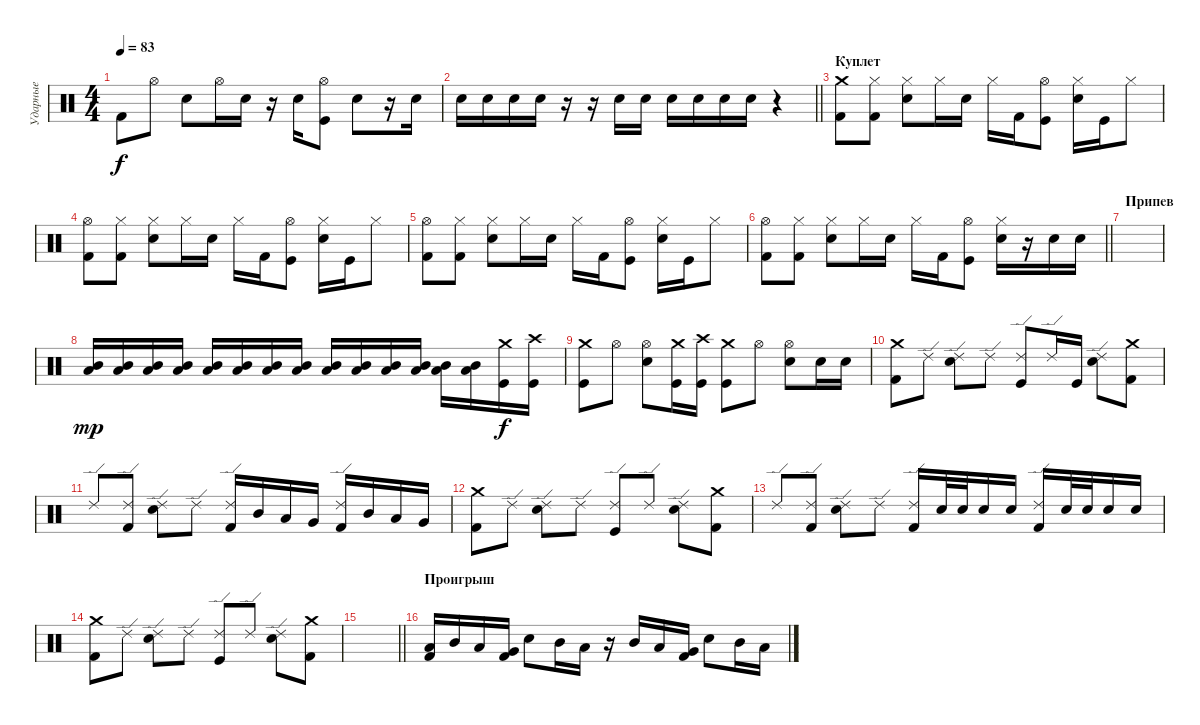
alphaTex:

\track ("Ударные" "Ударные") {instrument percussion}
\staff {score}
\articulation defaults
\ts (4 4)
\tempo 83
\clef neutral
\ks c "Kick (hit) 2".8{dy f} "Hi-Hat (open)".8 "Snare (hit) 2".8 "Hi-Hat (open)".16 "Snare (hit) 2".16
r.16 "Snare (hit) 2".16 ("Hi-Hat (open)" "Kick (hit)").8 "Snare (hit) 2".8 r.16 "Snare (hit) 2".16 |
\barLineRight lightlight "Snare (hit) 2".16 "Snare (hit) 2".16 "Snare (hit) 2".16 "Snare (hit) 2".16
r.16 r.16 "Snare (hit) 2".16 "Snare (hit) 2".16 "Snare (hit) 2".16 "Snare (hit) 2".16 "Snare (hit) 2".16 "Snare (hit) 2".16 r.4 |
\section ("" "Куплет")
("Crash medium (hit)" "Kick (hit) 2").8 ("Hi-Hat (closed)" "Kick (hit) 2").8 ("Hi-Hat (closed)" "Snare (hit) 2").8 "Hi-Hat (closed)".16 "Snare (hit) 2".16 "Hi-Hat (closed)".16 "Kick (hit) 2".16 ("Hi-Hat (open)" "Kick (hit)").8 ("Hi-Hat (closed)" "Snare (hit) 2").16 "Kick (hit)".16 "Hi-Hat (closed)".8 |
("Hi-Hat (open)" "Kick (hit) 2").8 ("Hi-Hat (closed)" "Kick (hit) 2").8 ("Hi-Hat (closed)" "Snare (hit) 2").8 "Hi-Hat (closed)".16 "Snare (hit) 2".16 "Hi-Hat (closed)".16 "Kick (hit) 2".16 ("Hi-Hat (open)" "Kick (hit)").8 ("Hi-Hat (closed)" "Snare (hit) 2").16 "Kick (hit)".16 "Hi-Hat (closed)".8 |
("Hi-Hat (open)" "Kick (hit) 2").8 ("Hi-Hat (closed)" "Kick (hit) 2").8 ("Hi-Hat (closed)" "Snare (hit) 2").8 "Hi-Hat (closed)".16 "Snare (hit) 2".16 "Hi-Hat (closed)".16 "Kick (hit) 2".16 ("Hi-Hat (open)" "Kick (hit)").8 ("Hi-Hat (closed)" "Snare (hit) 2").16 "Kick (hit)".16 "Hi-Hat (closed)".8 |
\barLineRight lightlight
("Hi-Hat (open)" "Kick (hit) 2").8 ("Hi-Hat (closed)" "Kick (hit) 2").8 ("Hi-Hat (closed)" "Snare (hit) 2").8 "Hi-Hat (closed)".16 "Snare (hit) 2".16 "Hi-Hat (closed)".16 "Kick (hit) 2".16 ("Hi-Hat (open)" "Kick (hit)").8 ("Hi-Hat (closed)" "Snare (hit) 2").16 r.16 "Snare (hit) 2".16 "Snare (hit) 2".16 |
\section ("" "Припев")
|
("Low Tom (hit)" "Mid Tom (hit)").16{dy mp} ("Low Tom (hit)" "Mid Tom (hit)").16 ("Low Tom (hit)" "Mid Tom (hit)").16 ("Low Tom (hit)" "Mid Tom (hit)").16 ("Low Tom (hit)" "Mid Tom (hit)").16 ("Low Tom (hit)" "Mid Tom (hit)").16 ("Low Tom (hit)" "Mid Tom (hit)").16 ("Low Tom (hit)" "Mid Tom (hit)").16 ("Low Tom (hit)" "Mid Tom (hit)").16 ("Low Tom (hit)" "Mid Tom (hit)").16 ("Low Tom (hit)" "Mid Tom (hit)").16 ("Low Tom (hit)" "Mid Tom (hit)").16 ("Low Tom (hit)" "Mid Tom (hit)").16 ("Low Tom (hit)" "Mid Tom (hit)").16 ("Crash medium (hit)" "Kick (hit)").16{dy f} ("Crash high (hit)" "Kick (hit)").16 |
("Crash medium (hit)" "Kick (hit)").8 "Hi-Hat (open)".8 ("Hi-Hat (open)" "Snare (hit) 2").8 ("Crash medium (hit)" "Kick (hit)").16 ("Crash high (hit)" "Kick (hit)").16 ("Crash medium (hit)" "Kick (hit)").8 "Hi-Hat (open)".8 ("Hi-Hat (open)" "Snare (hit) 2").8 "Snare (hit) 2".16 "Snare (hit) 2".16 |
("Crash medium (hit)" "Kick (hit) 2").8 "Ride (edge) 2".8 ("Ride (edge) 2" "Snare (hit) 2").8 "Ride (edge) 2".8 ("Ride (edge) 2" "Kick (hit)").8 "Ride (edge) 2".16 "Kick (hit)".16 ("Ride (edge) 2" "Snare (hit) 2").8 ("Crash medium (hit)" "Kick (hit) 2").8 |
"Ride (edge) 2".8 ("Ride (edge) 2" "Kick (hit) 2").8 ("Ride (edge) 2" "Snare (hit) 2").8 "Ride (edge) 2".8 ("Kick (hit) 2" "Ride (edge) 2").16 "Mid Tom (hit)".16 "Low Tom (hit)".16 "Very Low Tom (hit)".16 ("Kick (hit) 2" "Ride (edge) 2").16 "Mid Tom (hit)".16 "Low Tom (hit)".16 "Very Low Tom (hit)".16 |
("Crash medium (hit)" "Kick (hit) 2").8 "Ride (edge) 2".8 ("Ride (edge) 2" "Snare (hit) 2").8 "Ride (edge) 2".8 ("Ride (edge) 2" "Kick (hit)").8 "Ride (edge) 2".8 ("Ride (edge) 2" "Snare (hit) 2").8 ("Crash medium (hit)" "Kick (hit) 2").8 |
"Ride (edge) 2".8 ("Ride (edge) 2" "Kick (hit) 2").8 ("Ride (edge) 2" "Snare (hit) 2").8 "Ride (edge) 2".8 ("Kick (hit) 2" "Ride (edge) 2").16 "Snare (hit) 2".32 "Snare (hit) 2".32 "Snare (hit) 2".16 "Snare (hit) 2".16 ("Kick (hit) 2" "Ride (edge) 2").16 "Snare (hit) 2".32 "Snare (hit) 2".32 "Snare (hit) 2".16 "Snare (hit) 2".16 |
("Crash medium (hit)" "Kick (hit) 2").8 "Ride (edge) 2".8 ("Ride (edge) 2" "Snare (hit) 2").8 "Ride (edge) 2".8 ("Ride (edge) 2" "Kick (hit)").8 "Ride (edge) 2".8 ("Ride (edge) 2" "Snare (hit) 2").8 ("Crash medium (hit)" "Kick (hit) 2").8 |
\barLineRight lightlight
|
\section ("" "Проигрыш")
("Low Tom (hit)" "Kick (hit) 2").16 "Mid Tom (hit)".16 "Low Tom (hit)".16 ("Very Low Tom (hit)" "Kick (hit) 2").16 "Snare (hit) 2".8 "Mid Tom (hit)".16 "Low Tom (hit)".16 r.16 "Mid Tom (hit)".16 "Low Tom (hit)".16 ("Very Low Tom (hit)" "Kick (hit) 2").16 "Snare (hit) 2".8 "Mid Tom (hit)".16 "Low Tom (hit)".16
